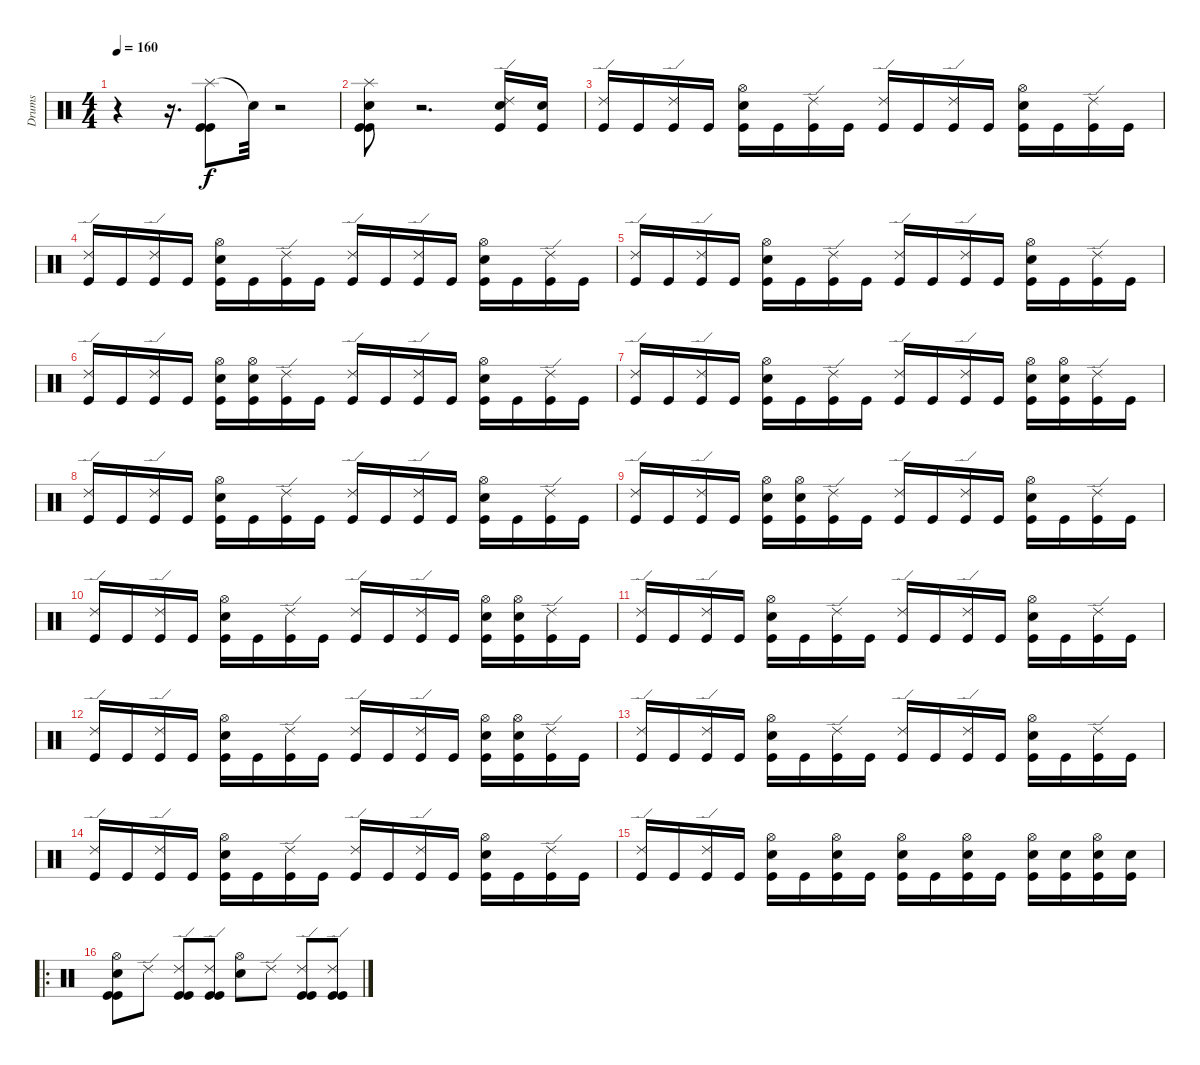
\track ("Drums" "Drums") {instrument percussion}
\staff {score}
\articulation defaults
\ts (4 4)
\tempo 160
\clef neutral
\ks c
r.4{dy f} r.16{d} ("Splash (hit)" "Kick (hit)" "Kick (hit)").8 "Snare (hit)"{t}.32 r.2 |
("Splash (hit)" "Snare (hit) 2" "Kick (hit)" "Kick (hit)").8 r.2{d} ("Ride (edge) 2" "Snare (hit) 2" "Kick (hit)").16 ("Snare (hit) 2" "Kick (hit)").16 |
("Ride (edge) 2" "Kick (hit)").16 "Kick (hit)".16 ("Ride (edge) 2" "Kick (hit)").16 "Kick (hit)".16 ("Hi-Hat (open)" "Snare (hit) 2" "Kick (hit)").16 "Kick (hit)".16 ("Ride (edge) 2" "Kick (hit)").16 "Kick (hit)".16 ("Ride (edge) 2" "Kick (hit)").16 "Kick (hit)".16 ("Ride (edge) 2" "Kick (hit)").16 "Kick (hit)".16 ("Hi-Hat (open)" "Snare (hit) 2" "Kick (hit)").16 "Kick (hit)".16 ("Ride (edge) 2" "Kick (hit)").16 "Kick (hit)".16 |
("Ride (edge) 2" "Kick (hit)").16 "Kick (hit)".16 ("Ride (edge) 2" "Kick (hit)").16 "Kick (hit)".16 ("Hi-Hat (open)" "Snare (hit) 2" "Kick (hit)").16 "Kick (hit)".16 ("Ride (edge) 2" "Kick (hit)").16 "Kick (hit)".16 ("Ride (edge) 2" "Kick (hit)").16 "Kick (hit)".16 ("Ride (edge) 2" "Kick (hit)").16 "Kick (hit)".16 ("Hi-Hat (open)" "Snare (hit) 2" "Kick (hit)").16 "Kick (hit)".16 ("Ride (edge) 2" "Kick (hit)").16 "Kick (hit)".16 |
("Ride (edge) 2" "Kick (hit)").16 "Kick (hit)".16 ("Ride (edge) 2" "Kick (hit)").16 "Kick (hit)".16 ("Hi-Hat (open)" "Snare (hit) 2" "Kick (hit)").16 "Kick (hit)".16 ("Ride (edge) 2" "Kick (hit)").16 "Kick (hit)".16 ("Ride (edge) 2" "Kick (hit)").16 "Kick (hit)".16 ("Ride (edge) 2" "Kick (hit)").16 "Kick (hit)".16 ("Hi-Hat (open)" "Snare (hit) 2" "Kick (hit)").16 "Kick (hit)".16 ("Ride (edge) 2" "Kick (hit)").16 "Kick (hit)".16 |
("Ride (edge) 2" "Kick (hit)").16 "Kick (hit)".16 ("Ride (edge) 2" "Kick (hit)").16 "Kick (hit)".16 ("Hi-Hat (open)" "Snare (hit) 2" "Kick (hit)").16 ("Hi-Hat (open)" "Snare (hit) 2" "Kick (hit)").16 ("Ride (edge) 2" "Kick (hit)").16 "Kick (hit)".16 ("Ride (edge) 2" "Kick (hit)").16 "Kick (hit)".16 ("Ride (edge) 2" "Kick (hit)").16 "Kick (hit)".16 ("Hi-Hat (open)" "Snare (hit) 2" "Kick (hit)").16 "Kick (hit)".16 ("Ride (edge) 2" "Kick (hit)").16 "Kick (hit)".16 |
("Ride (edge) 2" "Kick (hit)").16 "Kick (hit)".16 ("Ride (edge) 2" "Kick (hit)").16 "Kick (hit)".16 ("Hi-Hat (open)" "Snare (hit) 2" "Kick (hit)").16 "Kick (hit)".16 ("Ride (edge) 2" "Kick (hit)").16 "Kick (hit)".16 ("Ride (edge) 2" "Kick (hit)").16 "Kick (hit)".16 ("Ride (edge) 2" "Kick (hit)").16 "Kick (hit)".16 ("Hi-Hat (open)" "Snare (hit) 2" "Kick (hit)").16 ("Hi-Hat (open)" "Snare (hit) 2" "Kick (hit)").16 ("Ride (edge) 2" "Kick (hit)").16 "Kick (hit)".16 |
("Ride (edge) 2" "Kick (hit)").16 "Kick (hit)".16 ("Ride (edge) 2" "Kick (hit)").16 "Kick (hit)".16 ("Hi-Hat (open)" "Snare (hit) 2" "Kick (hit)").16 "Kick (hit)".16 ("Ride (edge) 2" "Kick (hit)").16 "Kick (hit)".16 ("Ride (edge) 2" "Kick (hit)").16 "Kick (hit)".16 ("Ride (edge) 2" "Kick (hit)").16 "Kick (hit)".16 ("Hi-Hat (open)" "Snare (hit) 2" "Kick (hit)").16 "Kick (hit)".16 ("Ride (edge) 2" "Kick (hit)").16 "Kick (hit)".16 |
("Ride (edge) 2" "Kick (hit)").16 "Kick (hit)".16 ("Ride (edge) 2" "Kick (hit)").16 "Kick (hit)".16 ("Hi-Hat (open)" "Snare (hit) 2" "Kick (hit)").16 ("Hi-Hat (open)" "Snare (hit) 2" "Kick (hit)").16 ("Ride (edge) 2" "Kick (hit)").16 "Kick (hit)".16 ("Ride (edge) 2" "Kick (hit)").16 "Kick (hit)".16 ("Ride (edge) 2" "Kick (hit)").16 "Kick (hit)".16 ("Hi-Hat (open)" "Snare (hit) 2" "Kick (hit)").16 "Kick (hit)".16 ("Ride (edge) 2" "Kick (hit)").16 "Kick (hit)".16 |
("Ride (edge) 2" "Kick (hit)").16 "Kick (hit)".16 ("Ride (edge) 2" "Kick (hit)").16 "Kick (hit)".16 ("Hi-Hat (open)" "Snare (hit) 2" "Kick (hit)").16 "Kick (hit)".16 ("Ride (edge) 2" "Kick (hit)").16 "Kick (hit)".16 ("Ride (edge) 2" "Kick (hit)").16 "Kick (hit)".16 ("Ride (edge) 2" "Kick (hit)").16 "Kick (hit)".16 ("Hi-Hat (open)" "Snare (hit) 2" "Kick (hit)").16 ("Hi-Hat (open)" "Snare (hit) 2" "Kick (hit)").16 ("Ride (edge) 2" "Kick (hit)").16 "Kick (hit)".16 |
("Ride (edge) 2" "Kick (hit)").16 "Kick (hit)".16 ("Ride (edge) 2" "Kick (hit)").16 "Kick (hit)".16 ("Hi-Hat (open)" "Snare (hit) 2" "Kick (hit)").16 "Kick (hit)".16 ("Ride (edge) 2" "Kick (hit)").16 "Kick (hit)".16 ("Ride (edge) 2" "Kick (hit)").16 "Kick (hit)".16 ("Ride (edge) 2" "Kick (hit)").16 "Kick (hit)".16 ("Hi-Hat (open)" "Snare (hit) 2" "Kick (hit)").16 "Kick (hit)".16 ("Ride (edge) 2" "Kick (hit)").16 "Kick (hit)".16 |
("Ride (edge) 2" "Kick (hit)").16 "Kick (hit)".16 ("Ride (edge) 2" "Kick (hit)").16 "Kick (hit)".16 ("Hi-Hat (open)" "Snare (hit) 2" "Kick (hit)").16 "Kick (hit)".16 ("Ride (edge) 2" "Kick (hit)").16 "Kick (hit)".16 ("Ride (edge) 2" "Kick (hit)").16 "Kick (hit)".16 ("Ride (edge) 2" "Kick (hit)").16 "Kick (hit)".16 ("Hi-Hat (open)" "Snare (hit) 2" "Kick (hit)").16 ("Hi-Hat (open)" "Snare (hit) 2" "Kick (hit)").16 ("Ride (edge) 2" "Kick (hit)").16 "Kick (hit)".16 |
("Ride (edge) 2" "Kick (hit)").16 "Kick (hit)".16 ("Ride (edge) 2" "Kick (hit)").16 "Kick (hit)".16 ("Hi-Hat (open)" "Snare (hit) 2" "Kick (hit)").16 "Kick (hit)".16 ("Ride (edge) 2" "Kick (hit)").16 "Kick (hit)".16 ("Ride (edge) 2" "Kick (hit)").16 "Kick (hit)".16 ("Ride (edge) 2" "Kick (hit)").16 "Kick (hit)".16 ("Hi-Hat (open)" "Snare (hit) 2" "Kick (hit)").16 "Kick (hit)".16 ("Ride (edge) 2" "Kick (hit)").16 "Kick (hit)".16 |
("Ride (edge) 2" "Kick (hit)").16 "Kick (hit)".16 ("Ride (edge) 2" "Kick (hit)").16 "Kick (hit)".16 ("Hi-Hat (open)" "Snare (hit) 2" "Kick (hit)").16 "Kick (hit)".16 ("Ride (edge) 2" "Kick (hit)").16 "Kick (hit)".16 ("Ride (edge) 2" "Kick (hit)").16 "Kick (hit)".16 ("Ride (edge) 2" "Kick (hit)").16 "Kick (hit)".16 ("Hi-Hat (open)" "Snare (hit) 2" "Kick (hit)").16 "Kick (hit)".16 ("Ride (edge) 2" "Kick (hit)").16 "Kick (hit)".16 |
("Ride (edge) 2" "Kick (hit)").16 "Kick (hit)".16 ("Ride (edge) 2" "Kick (hit)").16 "Kick (hit)".16 ("Hi-Hat (open)" "Snare (hit) 2" "Kick (hit)").16 "Kick (hit)".16 ("Hi-Hat (open)" "Snare (hit) 2" "Kick (hit)").16 "Kick (hit)".16 ("Hi-Hat (open)" "Snare (hit) 2" "Kick (hit)").16 "Kick (hit)".16 ("Hi-Hat (open)" "Snare (hit) 2" "Kick (hit)").16 "Kick (hit)".16 ("Hi-Hat (open)" "Snare (hit) 2" "Kick (hit)").16 ("Snare (hit) 2" "Kick (hit)").16 ("Hi-Hat (open)" "Snare (hit) 2" "Kick (hit)").16 ("Snare (hit) 2" "Kick (hit)").16 |
\ro
("Hi-Hat (open)" "Snare (hit) 2" "Kick (hit)" "Kick (hit)").8 "Ride (edge) 2".8 ("Ride (edge) 2" "Kick (hit)" "Kick (hit)").8 ("Ride (edge) 2" "Kick (hit)" "Kick (hit)").8 ("Hi-Hat (open)" "Snare (hit) 2").8 "Ride (edge) 2".8 ("Ride (edge) 2" "Kick (hit)" "Kick (hit)").8 ("Ride (edge) 2" "Kick (hit)" "Kick (hit)").8
